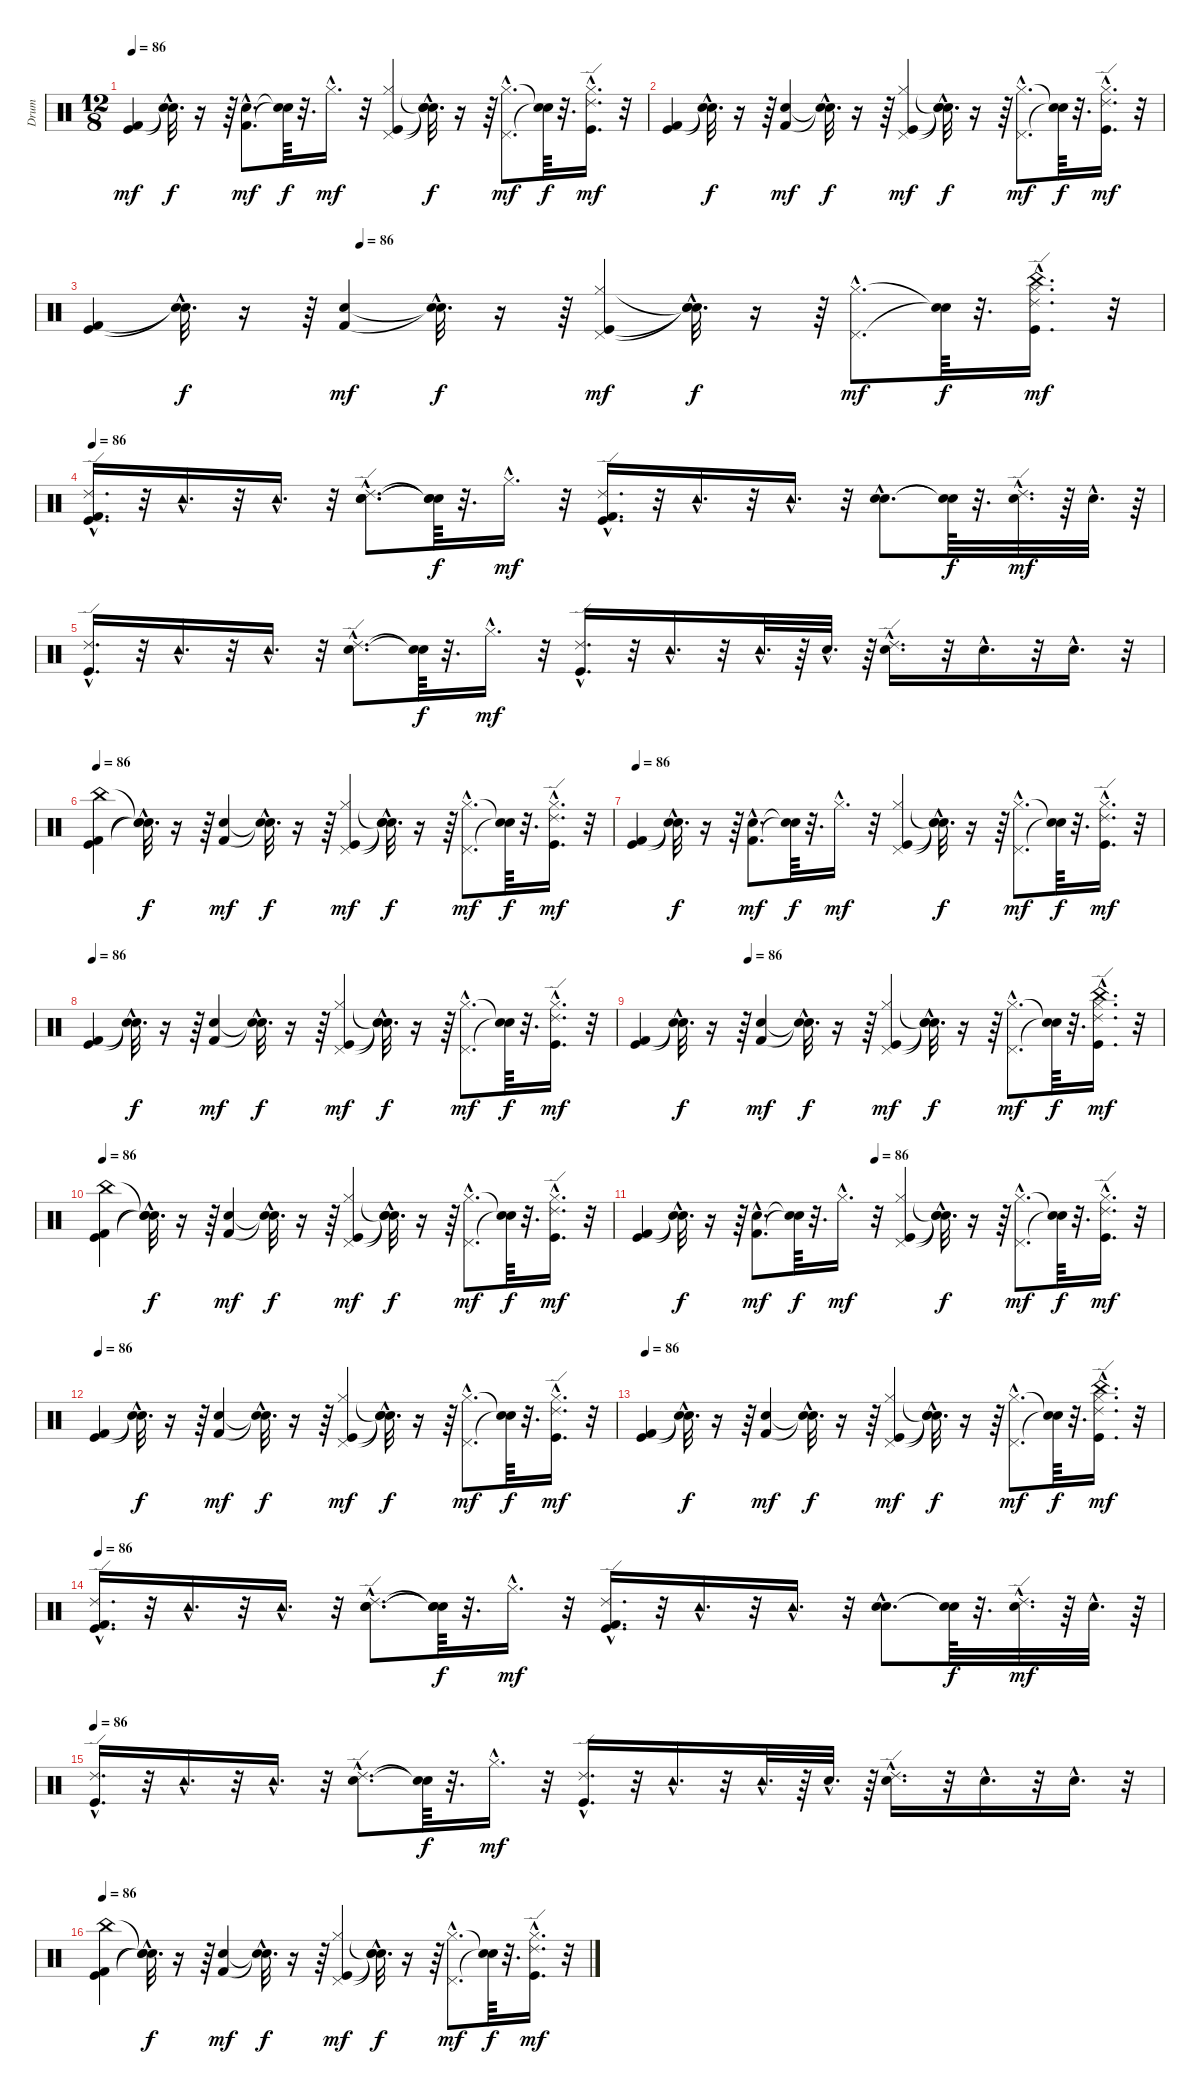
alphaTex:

\track ("Drum" "Drum") {instrument percussion}
\staff {score}
\articulation defaults
\ts (12 8)
\tempo 86
\clef neutral
\ks c
("Kick (hit) 2" "Kick (hit)").4{dy mf} ("Snare (hit)"{hac t} "Snare (hit)"{hac t}).32{d dy f} r.16 r.64 ("Kick (hit) 2"{hac} "Snare (hit) 2"{hac}).8{d dy mf} ("Snare (hit)"{t} "Snare (hit)"{t}).64{dy f} r.32{d} "Hi-Hat (closed)"{hac}.16{d dy mf} r.32 ("Kick (hit)" "Pedal Hi-Hat (hit)" "Hi-Hat (closed)").4 ("Snare (hit)"{hac t} "Snare (hit)"{hac t} "Snare (hit)"{hac t}).32{d dy f} r.16 r.64 ("Pedal Hi-Hat (hit)"{hac} "Hi-Hat (closed)"{hac}).8{d dy mf} ("Snare (hit)"{t} "Snare (hit)"{t}).64{dy f} r.32{d} ("Ride (edge) 2"{hac} "Kick (hit)"{hac} "Hi-Hat (closed)"{hac}).16{d dy mf} r.32 |
("Kick (hit)" "Kick (hit) 2").4 ("Snare (hit)"{hac t} "Snare (hit)"{hac t}).32{d dy f} r.16 r.64 ("Kick (hit) 2" "Snare (hit) 2").4{dy mf} ("Snare (hit)"{hac t} "Snare (hit)"{hac t}).32{d dy f} r.16 r.64 ("Kick (hit)" "Pedal Hi-Hat (hit)" "Hi-Hat (closed)").4{dy mf} ("Snare (hit)"{hac t} "Snare (hit)"{hac t} "Snare (hit)"{hac t}).32{d dy f} r.16 r.64 ("Hi-Hat (closed)"{hac} "Pedal Hi-Hat (hit)"{hac}).8{d dy mf} ("Snare (hit)"{t} "Snare (hit)"{t}).64{dy f} r.32{d} ("Ride (edge) 2"{hac} "Kick (hit)"{hac} "Hi-Hat (closed)"{hac}).16{d dy mf} r.32 |
\tempo (86 0.25)
("Kick (hit)" "Kick (hit) 2").4 ("Snare (hit)"{hac t} "Snare (hit)"{hac t}).32{d dy f} r.16 r.64 ("Snare (hit) 2" "Kick (hit) 2").4{dy mf} ("Snare (hit)"{hac t} "Snare (hit)"{hac t}).32{d dy f} r.16 r.64 ("Hi-Hat (closed)" "Pedal Hi-Hat (hit)" "Kick (hit)").4{dy mf} ("Snare (hit)"{hac t} "Snare (hit)"{hac t} "Snare (hit)"{hac t}).32{d dy f} r.16 r.64 ("Pedal Hi-Hat (hit)"{hac} "Hi-Hat (closed)"{hac}).8{d dy mf} ("Snare (hit)"{t} "Snare (hit)"{t}).64{dy f} r.32{d} ("China (hit)"{hac} "Hi-Hat (closed)"{hac} "Kick (hit)"{hac} "Ride (edge) 2"{hac}).16{d dy mf} r.32 |
\tempo 86
("Kick (hit)"{hac} "Kick (hit) 2"{hac} "Ride (edge) 2"{hac}).16{d} r.32 "Tambourine (hit)"{hac}.16{d} r.32 "Tambourine (hit)"{hac}.16{d} r.32 ("Snare (hit) 2"{hac} "Electric Snare (hit)"{hac} "Ride (edge) 2"{hac}).8{d} ("Snare (hit)"{t} "Snare (hit)"{t} "Snare (hit)"{t}).64{dy f} r.32{d} "Hi-Hat (closed)"{hac}.16{d dy mf} r.32 ("Kick (hit)"{hac} "Kick (hit) 2"{hac} "Ride (edge) 2"{hac}).16{d} r.32 "Tambourine (hit)"{hac}.16{d} r.32 "Tambourine (hit)"{hac}.16{d} r.32 ("Snare (hit) 2"{hac} "Electric Snare (hit)"{hac}).8{d} ("Snare (hit)"{t} "Snare (hit)"{t}).64{dy f} r.32{d} ("Snare (hit) 2"{hac} "Ride (edge) 2"{hac}).32{d dy mf} r.64 "Snare (hit) 2"{hac}.32{d} r.64 |
("Kick (hit)"{hac} "Ride (edge) 2"{hac}).16{d} r.32 "Tambourine (hit)"{hac}.16{d} r.32 "Tambourine (hit)"{hac}.16{d} r.32 ("Snare (hit) 2"{hac} "Ride (edge) 2"{hac}).8{d} ("Snare (hit)"{t} "Snare (hit)"{t}).64{dy f} r.32{d} "Hi-Hat (closed)"{hac}.16{d dy mf} r.32 ("Kick (hit)"{hac} "Ride (edge) 2"{hac}).16{d} r.32 "Tambourine (hit)"{hac}.16{d} r.32 "Tambourine (hit)"{hac}.32{d} r.64 "Snare (hit) 2"{hac}.32{d} r.64 ("Snare (hit) 2"{hac} "Ride (edge) 2"{hac}).16{d} r.32 "Snare (hit) 2"{hac}.16{d} r.32 "Snare (hit) 2"{hac}.16{d} r.32 |
\tempo 86
("Kick (hit) 2" "Kick (hit)" "China (hit)").4 ("Snare (hit)"{hac t} "Snare (hit)"{hac t} "Snare (hit)"{hac t}).32{d dy f} r.16 r.64 ("Kick (hit) 2" "Snare (hit) 2").4{dy mf} ("Snare (hit)"{hac t} "Snare (hit)"{hac t}).32{d dy f} r.16 r.64 ("Pedal Hi-Hat (hit)" "Hi-Hat (closed)" "Kick (hit)").4{dy mf} ("Snare (hit)"{hac t} "Snare (hit)"{hac t} "Snare (hit)"{hac t}).32{d dy f} r.16 r.64 ("Hi-Hat (closed)"{hac} "Pedal Hi-Hat (hit)"{hac}).8{d dy mf} ("Snare (hit)"{t} "Snare (hit)"{t}).64{dy f} r.32{d} ("Ride (edge) 2"{hac} "Hi-Hat (closed)"{hac} "Kick (hit)"{hac}).16{d dy mf} r.32 |
\tempo 86
("Kick (hit)" "Kick (hit) 2").4 ("Snare (hit)"{hac t} "Snare (hit)"{hac t}).32{d dy f} r.16 r.64 ("Snare (hit) 2"{hac} "Kick (hit) 2"{hac}).8{d dy mf} ("Snare (hit)"{t} "Snare (hit)"{t}).64{dy f} r.32{d} "Hi-Hat (closed)"{hac}.16{d dy mf} r.32 ("Hi-Hat (closed)" "Pedal Hi-Hat (hit)" "Kick (hit)").4 ("Snare (hit)"{hac t} "Snare (hit)"{hac t} "Snare (hit)"{hac t}).32{d dy f} r.16 r.64 ("Hi-Hat (closed)"{hac} "Pedal Hi-Hat (hit)"{hac}).8{d dy mf} ("Snare (hit)"{t} "Snare (hit)"{t}).64{dy f} r.32{d} ("Hi-Hat (closed)"{hac} "Kick (hit)"{hac} "Ride (edge) 2"{hac}).16{d dy mf} r.32 |
\tempo 86
("Kick (hit)" "Kick (hit) 2").4 ("Snare (hit)"{hac t} "Snare (hit)"{hac t}).32{d dy f} r.16 r.64 ("Snare (hit) 2" "Kick (hit) 2").4{dy mf} ("Snare (hit)"{hac t} "Snare (hit)"{hac t}).32{d dy f} r.16 r.64 ("Kick (hit)" "Hi-Hat (closed)" "Pedal Hi-Hat (hit)").4{dy mf} ("Snare (hit)"{hac t} "Snare (hit)"{hac t} "Snare (hit)"{hac t}).32{d dy f} r.16 r.64 ("Pedal Hi-Hat (hit)"{hac} "Hi-Hat (closed)"{hac}).8{d dy mf} ("Snare (hit)"{t} "Snare (hit)"{t}).64{dy f} r.32{d} ("Hi-Hat (closed)"{hac} "Ride (edge) 2"{hac} "Kick (hit)"{hac}).16{d dy mf} r.32 |
\tempo (86 0.20833333333333334)
("Kick (hit)" "Kick (hit) 2").4 ("Snare (hit)"{hac t} "Snare (hit)"{hac t}).32{d dy f} r.16 r.64 ("Snare (hit) 2" "Kick (hit) 2").4{dy mf} ("Snare (hit)"{hac t} "Snare (hit)"{hac t}).32{d dy f} r.16 r.64 ("Hi-Hat (closed)" "Pedal Hi-Hat (hit)" "Kick (hit)").4{dy mf} ("Snare (hit)"{hac t} "Snare (hit)"{hac t} "Snare (hit)"{hac t}).32{d dy f} r.16 r.64 ("Hi-Hat (closed)"{hac} "Pedal Hi-Hat (hit)"{hac}).8{d dy mf} ("Snare (hit)"{t} "Snare (hit)"{t}).64{dy f} r.32{d} ("Kick (hit)"{hac} "Hi-Hat (closed)"{hac} "Ride (edge) 2"{hac} "China (hit)"{hac}).16{d dy mf} r.32 |
\tempo 86
("Kick (hit) 2" "Kick (hit)" "China (hit)").4 ("Snare (hit)"{hac t} "Snare (hit)"{hac t} "Snare (hit)"{hac t}).32{d dy f} r.16 r.64 ("Kick (hit) 2" "Snare (hit) 2").4{dy mf} ("Snare (hit)"{hac t} "Snare (hit)"{hac t}).32{d dy f} r.16 r.64 ("Pedal Hi-Hat (hit)" "Hi-Hat (closed)" "Kick (hit)").4{dy mf} ("Snare (hit)"{hac t} "Snare (hit)"{hac t} "Snare (hit)"{hac t}).32{d dy f} r.16 r.64 ("Hi-Hat (closed)"{hac} "Pedal Hi-Hat (hit)"{hac}).8{d dy mf} ("Snare (hit)"{t} "Snare (hit)"{t}).64{dy f} r.32{d} ("Hi-Hat (closed)"{hac} "Ride (edge) 2"{hac} "Kick (hit)"{hac}).16{d dy mf} r.32 |
\tempo (86 0.4479166666666667)
("Kick (hit) 2" "Kick (hit)").4 ("Snare (hit)"{hac t} "Snare (hit)"{hac t}).32{d dy f} r.16 r.64 ("Snare (hit) 2"{hac} "Kick (hit) 2"{hac}).8{d dy mf} ("Snare (hit)"{t} "Snare (hit)"{t}).64{dy f} r.32{d} "Hi-Hat (closed)"{hac}.16{d dy mf} r.32 ("Pedal Hi-Hat (hit)" "Kick (hit)" "Hi-Hat (closed)").4 ("Snare (hit)"{hac t} "Snare (hit)"{hac t} "Snare (hit)"{hac t}).32{d dy f} r.16 r.64 ("Hi-Hat (closed)"{hac} "Pedal Hi-Hat (hit)"{hac}).8{d dy mf} ("Snare (hit)"{t} "Snare (hit)"{t}).64{dy f} r.32{d} ("Hi-Hat (closed)"{hac} "Kick (hit)"{hac} "Ride (edge) 2"{hac}).16{d dy mf} r.32 |
\tempo 86
("Kick (hit) 2" "Kick (hit)").4 ("Snare (hit)"{hac t} "Snare (hit)"{hac t}).32{d dy f} r.16 r.64 ("Snare (hit) 2" "Kick (hit) 2").4{dy mf} ("Snare (hit)"{hac t} "Snare (hit)"{hac t}).32{d dy f} r.16 r.64 ("Hi-Hat (closed)" "Pedal Hi-Hat (hit)" "Kick (hit)").4{dy mf} ("Snare (hit)"{hac t} "Snare (hit)"{hac t} "Snare (hit)"{hac t}).32{d dy f} r.16 r.64 ("Pedal Hi-Hat (hit)"{hac} "Hi-Hat (closed)"{hac}).8{d dy mf} ("Snare (hit)"{t} "Snare (hit)"{t}).64{dy f} r.32{d} ("Hi-Hat (closed)"{hac} "Kick (hit)"{hac} "Ride (edge) 2"{hac}).16{d dy mf} r.32 |
\tempo 86
("Kick (hit) 2" "Kick (hit)").4 ("Snare (hit)"{hac t} "Snare (hit)"{hac t}).32{d dy f} r.16 r.64 ("Kick (hit) 2" "Snare (hit) 2").4{dy mf} ("Snare (hit)"{hac t} "Snare (hit)"{hac t}).32{d dy f} r.16 r.64 ("Kick (hit)" "Pedal Hi-Hat (hit)" "Hi-Hat (closed)").4{dy mf} ("Snare (hit)"{hac t} "Snare (hit)"{hac t} "Snare (hit)"{hac t}).32{d dy f} r.16 r.64 ("Hi-Hat (closed)"{hac} "Pedal Hi-Hat (hit)"{hac}).8{d dy mf} ("Snare (hit)"{t} "Snare (hit)"{t}).64{dy f} r.32{d} ("Ride (edge) 2"{hac} "Kick (hit)"{hac} "Hi-Hat (closed)"{hac} "China (hit)"{hac}).16{d dy mf} r.32 |
\tempo 86
("Kick (hit)"{hac} "Kick (hit) 2"{hac} "Ride (edge) 2"{hac}).16{d} r.32 "Tambourine (hit)"{hac}.16{d} r.32 "Tambourine (hit)"{hac}.16{d} r.32 ("Ride (edge) 2"{hac} "Electric Snare (hit)"{hac} "Snare (hit) 2"{hac}).8{d} ("Snare (hit)"{t} "Snare (hit)"{t} "Snare (hit)"{t}).64{dy f} r.32{d} "Hi-Hat (closed)"{hac}.16{d dy mf} r.32 ("Kick (hit) 2"{hac} "Kick (hit)"{hac} "Ride (edge) 2"{hac}).16{d} r.32 "Tambourine (hit)"{hac}.16{d} r.32 "Tambourine (hit)"{hac}.16{d} r.32 ("Electric Snare (hit)"{hac} "Snare (hit) 2"{hac}).8{d} ("Snare (hit)"{t} "Snare (hit)"{t}).64{dy f} r.32{d} ("Ride (edge) 2"{hac} "Snare (hit) 2"{hac}).32{d dy mf} r.64 "Snare (hit) 2"{hac}.32{d} r.64 |
\tempo 86
("Ride (edge) 2"{hac} "Kick (hit)"{hac}).16{d} r.32 "Tambourine (hit)"{hac}.16{d} r.32 "Tambourine (hit)"{hac}.16{d} r.32 ("Ride (edge) 2"{hac} "Snare (hit) 2"{hac}).8{d} ("Snare (hit)"{t} "Snare (hit)"{t}).64{dy f} r.32{d} "Hi-Hat (closed)"{hac}.16{d dy mf} r.32 ("Ride (edge) 2"{hac} "Kick (hit)"{hac}).16{d} r.32 "Tambourine (hit)"{hac}.16{d} r.32 "Tambourine (hit)"{hac}.32{d} r.64 "Snare (hit) 2"{hac}.32{d} r.64 ("Snare (hit) 2"{hac} "Ride (edge) 2"{hac}).16{d} r.32 "Snare (hit) 2"{hac}.16{d} r.32 "Snare (hit) 2"{hac}.16{d} r.32 |
\tempo 86
("China (hit)" "Kick (hit)" "Kick (hit) 2").4 ("Snare (hit)"{hac t} "Snare (hit)"{hac t} "Snare (hit)"{hac t}).32{d dy f} r.16 r.64 ("Snare (hit) 2" "Kick (hit) 2").4{dy mf} ("Snare (hit)"{hac t} "Snare (hit)"{hac t}).32{d dy f} r.16 r.64 ("Hi-Hat (closed)" "Kick (hit)" "Pedal Hi-Hat (hit)").4{dy mf} ("Snare (hit)"{hac t} "Snare (hit)"{hac t} "Snare (hit)"{hac t}).32{d dy f} r.16 r.64 ("Hi-Hat (closed)"{hac} "Pedal Hi-Hat (hit)"{hac}).8{d dy mf} ("Snare (hit)"{t} "Snare (hit)"{t}).64{dy f} r.32{d} ("Hi-Hat (closed)"{hac} "Kick (hit)"{hac} "Ride (edge) 2"{hac}).16{d dy mf} r.32
